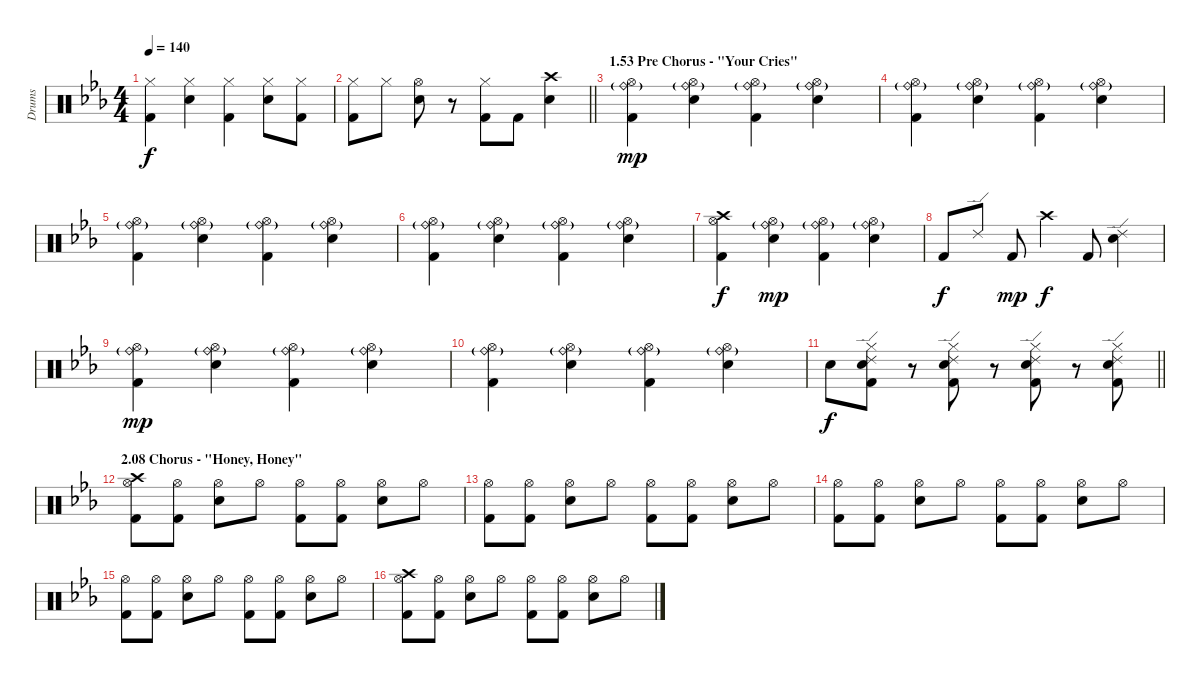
\track ("Drums" "Drums") {instrument percussion}
\staff {score}
\articulation defaults
\ts (4 4)
\tempo 140
\clef neutral
\ks cminor
("Hi-Hat (closed)" "Kick (hit) 2").4{dy f} ("Hi-Hat (closed)" "Electric Snare (hit)").4 ("Hi-Hat (closed)" "Kick (hit) 2").4 ("Hi-Hat (closed)" "Electric Snare (hit)").8 ("Hi-Hat (closed)" "Kick (hit) 2").8 |
\barLineRight lightlight
("Hi-Hat (closed)" "Kick (hit) 2").8 "Hi-Hat (closed)".8 ("Hi-Hat (open)" "Electric Snare (hit)").8 r.8 ("Hi-Hat (closed)" "Kick (hit) 2").8 "Kick (hit) 2".8 ("Crash high (hit)" "Electric Snare (hit)").4 |
\section ("" "1.53 Pre Chorus - \"Your Cries\"")
("Ride (bell)"{g} "Hi-Hat (open)" "Kick (hit) 2").4{dy mp} ("Ride (bell)"{g} "Hi-Hat (open)" "Electric Snare (hit)").4 ("Ride (bell)"{g} "Hi-Hat (open)" "Kick (hit) 2").4 ("Ride (bell)"{g} "Hi-Hat (open)" "Electric Snare (hit)").4 |
("Ride (bell)"{g} "Hi-Hat (open)" "Kick (hit) 2").4 ("Ride (bell)"{g} "Hi-Hat (open)" "Electric Snare (hit)").4 ("Ride (bell)"{g} "Hi-Hat (open)" "Kick (hit) 2").4 ("Ride (bell)"{g} "Hi-Hat (open)" "Electric Snare (hit)").4 |
("Ride (bell)"{g} "Hi-Hat (open)" "Kick (hit) 2").4 ("Ride (bell)"{g} "Hi-Hat (open)" "Electric Snare (hit)").4 ("Ride (bell)"{g} "Hi-Hat (open)" "Kick (hit) 2").4 ("Ride (bell)"{g} "Hi-Hat (open)" "Electric Snare (hit)").4 |
("Ride (bell)"{g} "Hi-Hat (open)" "Kick (hit) 2").4 ("Ride (bell)"{g} "Hi-Hat (open)" "Electric Snare (hit)").4 ("Ride (bell)"{g} "Hi-Hat (open)" "Kick (hit) 2").4 ("Ride (bell)"{g} "Hi-Hat (open)" "Electric Snare (hit)").4 |
("Crash high (hit)" "Hi-Hat (open)" "Kick (hit) 2").4{dy f} ("Ride (bell)"{g} "Hi-Hat (open)" "Electric Snare (hit)").4{dy mp} ("Ride (bell)"{g} "Hi-Hat (open)" "Kick (hit) 2").4 ("Ride (bell)"{g} "Hi-Hat (open)" "Electric Snare (hit)").4 |
"Kick (hit) 2".8{dy f} "Ride (edge) 2".8 "Kick (hit) 2".8{dy mp} "Crash high (hit)".4{dy f} "Kick (hit) 2".8 ("Ride (edge) 2" "Electric Snare (hit)").4 |
("Ride (bell)"{g} "Hi-Hat (open)" "Kick (hit) 2").4{dy mp} ("Ride (bell)"{g} "Hi-Hat (open)" "Electric Snare (hit)").4 ("Ride (bell)"{g} "Hi-Hat (open)" "Kick (hit) 2").4 ("Ride (bell)"{g} "Hi-Hat (open)" "Electric Snare (hit)").4 |
("Ride (bell)"{g} "Hi-Hat (open)" "Kick (hit) 2").4 ("Ride (bell)"{g} "Hi-Hat (open)" "Electric Snare (hit)").4 ("Ride (bell)"{g} "Hi-Hat (open)" "Kick (hit) 2").4 ("Ride (bell)"{g} "Hi-Hat (open)" "Electric Snare (hit)").4 |
\barLineRight lightlight "Electric Snare (hit)".8{dy f}
("Ride (edge) 2" "Hi-Hat (closed)" "Electric Snare (hit)" "Kick (hit) 2").8 r.8 ("Ride (edge) 2" "Hi-Hat (closed)" "Electric Snare (hit)" "Kick (hit) 2").8 r.8 ("Ride (edge) 2" "Hi-Hat (closed)" "Electric Snare (hit)" "Kick (hit) 2").8 r.8 ("Ride (edge) 2" "Hi-Hat (closed)" "Electric Snare (hit)" "Kick (hit) 2").8 |
\section ("" "2.08 Chorus - \"Honey, Honey\"")
("Crash high (hit)" "Hi-Hat (open)" "Kick (hit) 2").8 ("Hi-Hat (open)" "Kick (hit) 2").8 ("Hi-Hat (open)" "Electric Snare (hit)").8 "Hi-Hat (open)".8 ("Hi-Hat (open)" "Kick (hit) 2").8 ("Hi-Hat (open)" "Kick (hit) 2").8 ("Hi-Hat (open)" "Electric Snare (hit)").8 "Hi-Hat (open)".8 |
("Hi-Hat (open)" "Kick (hit) 2").8 ("Hi-Hat (open)" "Kick (hit) 2").8 ("Hi-Hat (open)" "Electric Snare (hit)").8 "Hi-Hat (open)".8 ("Hi-Hat (open)" "Kick (hit) 2").8 ("Hi-Hat (open)" "Kick (hit) 2").8 ("Hi-Hat (open)" "Electric Snare (hit)").8 "Hi-Hat (open)".8 |
("Hi-Hat (open)" "Kick (hit) 2").8 ("Hi-Hat (open)" "Kick (hit) 2").8 ("Hi-Hat (open)" "Electric Snare (hit)").8 "Hi-Hat (open)".8 ("Hi-Hat (open)" "Kick (hit) 2").8 ("Hi-Hat (open)" "Kick (hit) 2").8 ("Hi-Hat (open)" "Electric Snare (hit)").8 "Hi-Hat (open)".8 |
("Hi-Hat (open)" "Kick (hit) 2").8 ("Hi-Hat (open)" "Kick (hit) 2").8 ("Hi-Hat (open)" "Electric Snare (hit)").8 "Hi-Hat (open)".8 ("Hi-Hat (open)" "Kick (hit) 2").8 ("Hi-Hat (open)" "Kick (hit) 2").8 ("Hi-Hat (open)" "Electric Snare (hit)").8 "Hi-Hat (open)".8 |
("Crash high (hit)" "Hi-Hat (open)" "Kick (hit) 2").8 ("Hi-Hat (open)" "Kick (hit) 2").8 ("Hi-Hat (open)" "Electric Snare (hit)").8 "Hi-Hat (open)".8 ("Hi-Hat (open)" "Kick (hit) 2").8 ("Hi-Hat (open)" "Kick (hit) 2").8 ("Hi-Hat (open)" "Electric Snare (hit)").8 "Hi-Hat (open)".8
